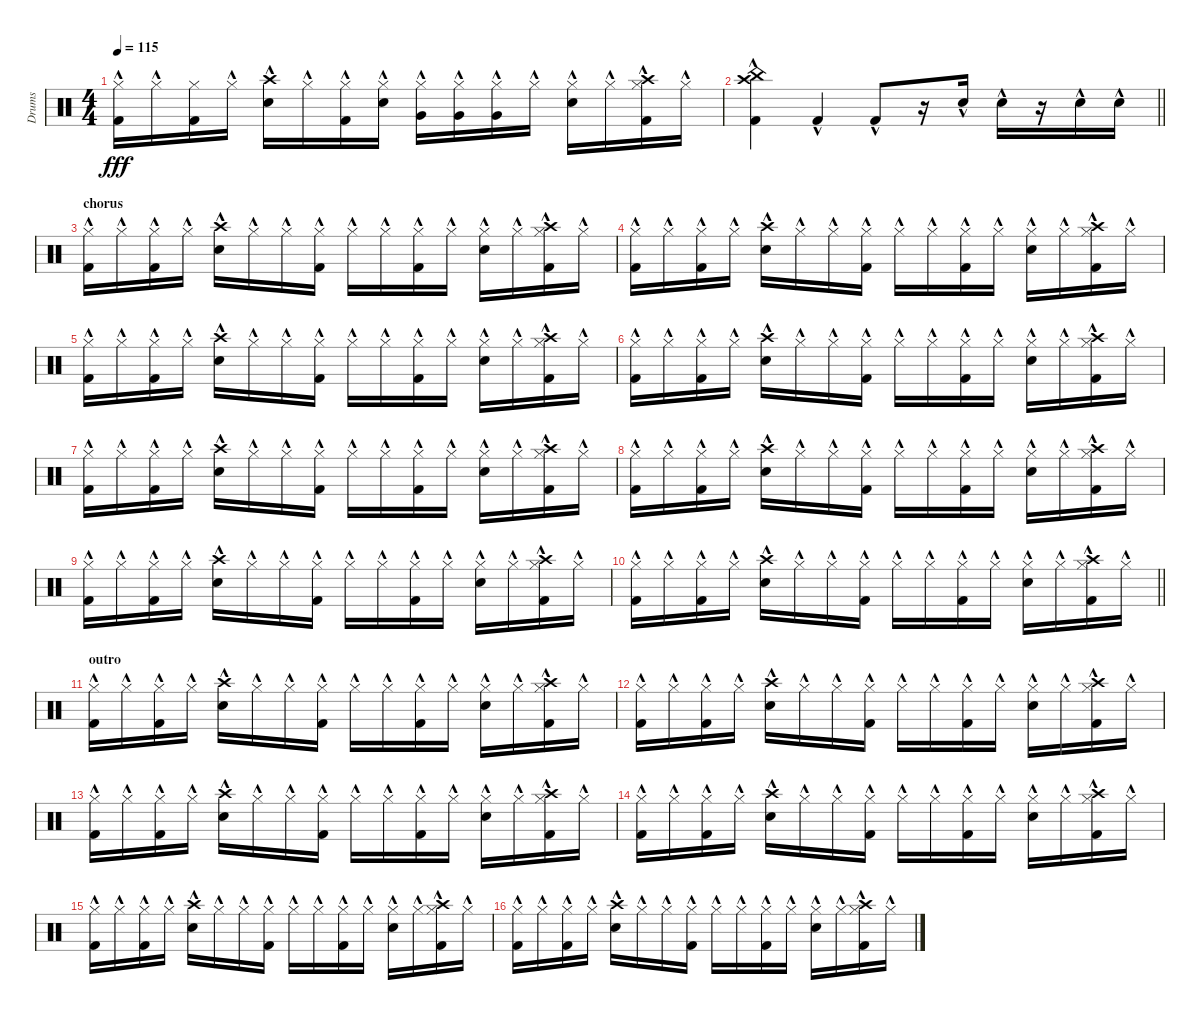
\track ("Drums" "Drums") {instrument percussion}
\staff {score}
\articulation defaults
\ts (4 4)
\tempo 115
\clef neutral
\ks c
("Kick (hit) 2"{hac} "Hi-Hat (closed)").16{dy fff} "Hi-Hat (closed)"{hac}.16 ("Kick (hit) 2" "Hi-Hat (closed)").16 "Hi-Hat (closed)"{hac}.16 ("Electric Snare (hit)"{hac} "Crash high (hit)").16 "Hi-Hat (closed)"{hac}.16 ("Kick (hit) 2" "Hi-Hat (closed)"{hac}).16 ("Electric Snare (hit)" "Hi-Hat (closed)"{hac}).16 ("Very Low Tom (hit)" "Hi-Hat (closed)"{hac}).16 ("Very Low Tom (hit)" "Hi-Hat (closed)"{hac}).16 ("Very Low Tom (hit)" "Hi-Hat (closed)"{hac}).16 "Hi-Hat (closed)"{hac}.16 ("Electric Snare (hit)" "Hi-Hat (closed)"{hac}).16 "Hi-Hat (closed)"{hac}.16 ("Crash high (hit)" "Kick (hit) 2" "Hi-Hat (closed)"{hac}).16 "Hi-Hat (closed)"{hac}.16 |
\barLineRight lightlight
("China (hit)"{hac} "Kick (hit) 2" "Crash high (hit)"{hac}).4 "Kick (hit) 2"{hac}.4 "Kick (hit) 2"{hac}.8 r.16 "Electric Snare (hit)"{hac}.16 "Electric Snare (hit)"{hac}.16 r.16 "Electric Snare (hit)"{hac}.16 "Electric Snare (hit)"{hac}.16 |
\section ("" "chorus")
("Kick (hit) 2"{hac} "Hi-Hat (closed)").16 "Hi-Hat (closed)"{hac}.16 ("Kick (hit) 2"{hac} "Hi-Hat (closed)").16 "Hi-Hat (closed)"{hac}.16 ("Electric Snare (hit)"{hac} "Crash high (hit)").16 "Hi-Hat (closed)"{hac}.16 "Hi-Hat (closed)"{hac}.16 ("Kick (hit) 2" "Hi-Hat (closed)"{hac}).16 "Hi-Hat (closed)"{hac}.16 "Hi-Hat (closed)"{hac}.16 ("Kick (hit) 2" "Hi-Hat (closed)"{hac}).16 "Hi-Hat (closed)"{hac}.16 ("Electric Snare (hit)" "Hi-Hat (closed)"{hac}).16 "Hi-Hat (closed)"{hac}.16 ("Crash high (hit)" "Kick (hit) 2" "Hi-Hat (closed)"{hac}).16 "Hi-Hat (closed)"{hac}.16 |
("Kick (hit) 2"{hac} "Hi-Hat (closed)").16 "Hi-Hat (closed)"{hac}.16 ("Kick (hit) 2"{hac} "Hi-Hat (closed)").16 "Hi-Hat (closed)"{hac}.16 ("Electric Snare (hit)"{hac} "Crash high (hit)").16 "Hi-Hat (closed)"{hac}.16 "Hi-Hat (closed)"{hac}.16 ("Kick (hit) 2" "Hi-Hat (closed)"{hac}).16 "Hi-Hat (closed)"{hac}.16 "Hi-Hat (closed)"{hac}.16 ("Kick (hit) 2" "Hi-Hat (closed)"{hac}).16 "Hi-Hat (closed)"{hac}.16 ("Electric Snare (hit)" "Hi-Hat (closed)"{hac}).16 "Hi-Hat (closed)"{hac}.16 ("Crash high (hit)" "Kick (hit) 2" "Hi-Hat (closed)"{hac}).16 "Hi-Hat (closed)"{hac}.16 |
("Kick (hit) 2"{hac} "Hi-Hat (closed)").16 "Hi-Hat (closed)"{hac}.16 ("Kick (hit) 2"{hac} "Hi-Hat (closed)").16 "Hi-Hat (closed)"{hac}.16 ("Electric Snare (hit)"{hac} "Crash high (hit)").16 "Hi-Hat (closed)"{hac}.16 "Hi-Hat (closed)"{hac}.16 ("Kick (hit) 2" "Hi-Hat (closed)"{hac}).16 "Hi-Hat (closed)"{hac}.16 "Hi-Hat (closed)"{hac}.16 ("Kick (hit) 2" "Hi-Hat (closed)"{hac}).16 "Hi-Hat (closed)"{hac}.16 ("Electric Snare (hit)" "Hi-Hat (closed)"{hac}).16 "Hi-Hat (closed)"{hac}.16 ("Crash high (hit)" "Kick (hit) 2" "Hi-Hat (closed)"{hac}).16 "Hi-Hat (closed)"{hac}.16 |
("Kick (hit) 2"{hac} "Hi-Hat (closed)").16 "Hi-Hat (closed)"{hac}.16 ("Kick (hit) 2"{hac} "Hi-Hat (closed)").16 "Hi-Hat (closed)"{hac}.16 ("Electric Snare (hit)"{hac} "Crash high (hit)").16 "Hi-Hat (closed)"{hac}.16 "Hi-Hat (closed)"{hac}.16 ("Kick (hit) 2" "Hi-Hat (closed)"{hac}).16 "Hi-Hat (closed)"{hac}.16 "Hi-Hat (closed)"{hac}.16 ("Kick (hit) 2" "Hi-Hat (closed)"{hac}).16 "Hi-Hat (closed)"{hac}.16 ("Electric Snare (hit)" "Hi-Hat (closed)"{hac}).16 "Hi-Hat (closed)"{hac}.16 ("Crash high (hit)" "Kick (hit) 2" "Hi-Hat (closed)"{hac}).16 "Hi-Hat (closed)"{hac}.16 |
("Kick (hit) 2"{hac} "Hi-Hat (closed)").16 "Hi-Hat (closed)"{hac}.16 ("Kick (hit) 2"{hac} "Hi-Hat (closed)").16 "Hi-Hat (closed)"{hac}.16 ("Electric Snare (hit)"{hac} "Crash high (hit)").16 "Hi-Hat (closed)"{hac}.16 "Hi-Hat (closed)"{hac}.16 ("Kick (hit) 2" "Hi-Hat (closed)"{hac}).16 "Hi-Hat (closed)"{hac}.16 "Hi-Hat (closed)"{hac}.16 ("Kick (hit) 2" "Hi-Hat (closed)"{hac}).16 "Hi-Hat (closed)"{hac}.16 ("Electric Snare (hit)" "Hi-Hat (closed)"{hac}).16 "Hi-Hat (closed)"{hac}.16 ("Crash high (hit)" "Kick (hit) 2" "Hi-Hat (closed)"{hac}).16 "Hi-Hat (closed)"{hac}.16 |
("Kick (hit) 2"{hac} "Hi-Hat (closed)").16 "Hi-Hat (closed)"{hac}.16 ("Kick (hit) 2"{hac} "Hi-Hat (closed)").16 "Hi-Hat (closed)"{hac}.16 ("Electric Snare (hit)"{hac} "Crash high (hit)").16 "Hi-Hat (closed)"{hac}.16 "Hi-Hat (closed)"{hac}.16 ("Kick (hit) 2" "Hi-Hat (closed)"{hac}).16 "Hi-Hat (closed)"{hac}.16 "Hi-Hat (closed)"{hac}.16 ("Kick (hit) 2" "Hi-Hat (closed)"{hac}).16 "Hi-Hat (closed)"{hac}.16 ("Electric Snare (hit)" "Hi-Hat (closed)"{hac}).16 "Hi-Hat (closed)"{hac}.16 ("Crash high (hit)" "Kick (hit) 2" "Hi-Hat (closed)"{hac}).16 "Hi-Hat (closed)"{hac}.16 |
("Kick (hit) 2"{hac} "Hi-Hat (closed)").16 "Hi-Hat (closed)"{hac}.16 ("Kick (hit) 2"{hac} "Hi-Hat (closed)").16 "Hi-Hat (closed)"{hac}.16 ("Electric Snare (hit)"{hac} "Crash high (hit)").16 "Hi-Hat (closed)"{hac}.16 "Hi-Hat (closed)"{hac}.16 ("Kick (hit) 2" "Hi-Hat (closed)"{hac}).16 "Hi-Hat (closed)"{hac}.16 "Hi-Hat (closed)"{hac}.16 ("Kick (hit) 2" "Hi-Hat (closed)"{hac}).16 "Hi-Hat (closed)"{hac}.16 ("Electric Snare (hit)" "Hi-Hat (closed)"{hac}).16 "Hi-Hat (closed)"{hac}.16 ("Crash high (hit)" "Kick (hit) 2" "Hi-Hat (closed)"{hac}).16 "Hi-Hat (closed)"{hac}.16 |
\barLineRight lightlight
("Kick (hit) 2"{hac} "Hi-Hat (closed)").16 "Hi-Hat (closed)"{hac}.16 ("Kick (hit) 2"{hac} "Hi-Hat (closed)").16 "Hi-Hat (closed)"{hac}.16 ("Electric Snare (hit)"{hac} "Crash high (hit)").16 "Hi-Hat (closed)"{hac}.16 "Hi-Hat (closed)"{hac}.16 ("Kick (hit) 2" "Hi-Hat (closed)"{hac}).16 "Hi-Hat (closed)"{hac}.16 "Hi-Hat (closed)"{hac}.16 ("Kick (hit) 2" "Hi-Hat (closed)"{hac}).16 "Hi-Hat (closed)"{hac}.16 ("Electric Snare (hit)" "Hi-Hat (closed)"{hac}).16 "Hi-Hat (closed)"{hac}.16 ("Crash high (hit)" "Kick (hit) 2" "Hi-Hat (closed)"{hac}).16 "Hi-Hat (closed)"{hac}.16 |
\section ("" "outro")
("Kick (hit) 2"{hac} "Hi-Hat (closed)").16 "Hi-Hat (closed)"{hac}.16 ("Kick (hit) 2"{hac} "Hi-Hat (closed)").16 "Hi-Hat (closed)"{hac}.16 ("Electric Snare (hit)"{hac} "Crash high (hit)").16 "Hi-Hat (closed)"{hac}.16 "Hi-Hat (closed)"{hac}.16 ("Kick (hit) 2" "Hi-Hat (closed)"{hac}).16 "Hi-Hat (closed)"{hac}.16 "Hi-Hat (closed)"{hac}.16 ("Kick (hit) 2" "Hi-Hat (closed)"{hac}).16 "Hi-Hat (closed)"{hac}.16 ("Electric Snare (hit)" "Hi-Hat (closed)"{hac}).16 "Hi-Hat (closed)"{hac}.16 ("Crash high (hit)" "Kick (hit) 2" "Hi-Hat (closed)"{hac}).16 "Hi-Hat (closed)"{hac}.16 |
("Kick (hit) 2"{hac} "Hi-Hat (closed)").16 "Hi-Hat (closed)"{hac}.16 ("Kick (hit) 2"{hac} "Hi-Hat (closed)").16 "Hi-Hat (closed)"{hac}.16 ("Electric Snare (hit)"{hac} "Crash high (hit)").16 "Hi-Hat (closed)"{hac}.16 "Hi-Hat (closed)"{hac}.16 ("Kick (hit) 2" "Hi-Hat (closed)"{hac}).16 "Hi-Hat (closed)"{hac}.16 "Hi-Hat (closed)"{hac}.16 ("Kick (hit) 2" "Hi-Hat (closed)"{hac}).16 "Hi-Hat (closed)"{hac}.16 ("Electric Snare (hit)" "Hi-Hat (closed)"{hac}).16 "Hi-Hat (closed)"{hac}.16 ("Crash high (hit)" "Kick (hit) 2" "Hi-Hat (closed)"{hac}).16 "Hi-Hat (closed)"{hac}.16 |
("Kick (hit) 2"{hac} "Hi-Hat (closed)").16 "Hi-Hat (closed)"{hac}.16 ("Kick (hit) 2"{hac} "Hi-Hat (closed)").16 "Hi-Hat (closed)"{hac}.16 ("Electric Snare (hit)"{hac} "Crash high (hit)").16 "Hi-Hat (closed)"{hac}.16 "Hi-Hat (closed)"{hac}.16 ("Kick (hit) 2" "Hi-Hat (closed)"{hac}).16 "Hi-Hat (closed)"{hac}.16 "Hi-Hat (closed)"{hac}.16 ("Kick (hit) 2" "Hi-Hat (closed)"{hac}).16 "Hi-Hat (closed)"{hac}.16 ("Electric Snare (hit)" "Hi-Hat (closed)"{hac}).16 "Hi-Hat (closed)"{hac}.16 ("Crash high (hit)" "Kick (hit) 2" "Hi-Hat (closed)"{hac}).16 "Hi-Hat (closed)"{hac}.16 |
("Kick (hit) 2"{hac} "Hi-Hat (closed)").16 "Hi-Hat (closed)"{hac}.16 ("Kick (hit) 2"{hac} "Hi-Hat (closed)").16 "Hi-Hat (closed)"{hac}.16 ("Electric Snare (hit)"{hac} "Crash high (hit)").16 "Hi-Hat (closed)"{hac}.16 "Hi-Hat (closed)"{hac}.16 ("Kick (hit) 2" "Hi-Hat (closed)"{hac}).16 "Hi-Hat (closed)"{hac}.16 "Hi-Hat (closed)"{hac}.16 ("Kick (hit) 2" "Hi-Hat (closed)"{hac}).16 "Hi-Hat (closed)"{hac}.16 ("Electric Snare (hit)" "Hi-Hat (closed)"{hac}).16 "Hi-Hat (closed)"{hac}.16 ("Crash high (hit)" "Kick (hit) 2" "Hi-Hat (closed)"{hac}).16 "Hi-Hat (closed)"{hac}.16 |
("Kick (hit) 2"{hac} "Hi-Hat (closed)").16 "Hi-Hat (closed)"{hac}.16 ("Kick (hit) 2"{hac} "Hi-Hat (closed)").16 "Hi-Hat (closed)"{hac}.16 ("Electric Snare (hit)"{hac} "Crash high (hit)").16 "Hi-Hat (closed)"{hac}.16 "Hi-Hat (closed)"{hac}.16 ("Kick (hit) 2" "Hi-Hat (closed)"{hac}).16 "Hi-Hat (closed)"{hac}.16 "Hi-Hat (closed)"{hac}.16 ("Kick (hit) 2" "Hi-Hat (closed)"{hac}).16 "Hi-Hat (closed)"{hac}.16 ("Electric Snare (hit)" "Hi-Hat (closed)"{hac}).16 "Hi-Hat (closed)"{hac}.16 ("Crash high (hit)" "Kick (hit) 2" "Hi-Hat (closed)"{hac}).16 "Hi-Hat (closed)"{hac}.16 |
("Kick (hit) 2"{hac} "Hi-Hat (closed)").16 "Hi-Hat (closed)"{hac}.16 ("Kick (hit) 2"{hac} "Hi-Hat (closed)").16 "Hi-Hat (closed)"{hac}.16 ("Electric Snare (hit)"{hac} "Crash high (hit)").16 "Hi-Hat (closed)"{hac}.16 "Hi-Hat (closed)"{hac}.16 ("Kick (hit) 2" "Hi-Hat (closed)"{hac}).16 "Hi-Hat (closed)"{hac}.16 "Hi-Hat (closed)"{hac}.16 ("Kick (hit) 2" "Hi-Hat (closed)"{hac}).16 "Hi-Hat (closed)"{hac}.16 ("Electric Snare (hit)" "Hi-Hat (closed)"{hac}).16 "Hi-Hat (closed)"{hac}.16 ("Crash high (hit)" "Kick (hit) 2" "Hi-Hat (closed)"{hac}).16 "Hi-Hat (closed)"{hac}.16
